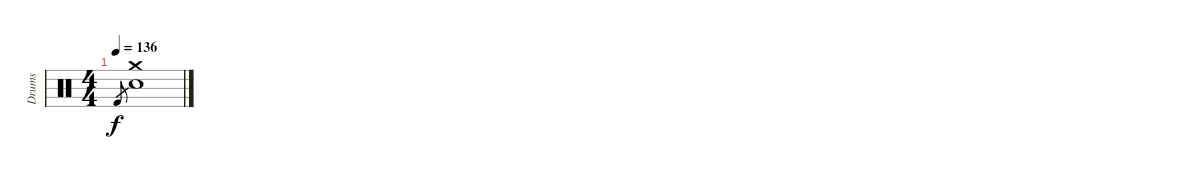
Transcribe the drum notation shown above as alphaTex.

\track ("Drums" "Drums") {instrument percussion}
\staff {score}
\articulation defaults
\ts (4 4)
\tempo 136
\clef neutral
\ks c "Kick (hit) 2".8{gr dy f}
("Crash medium (hit)" "Electric Snare (hit)").1
